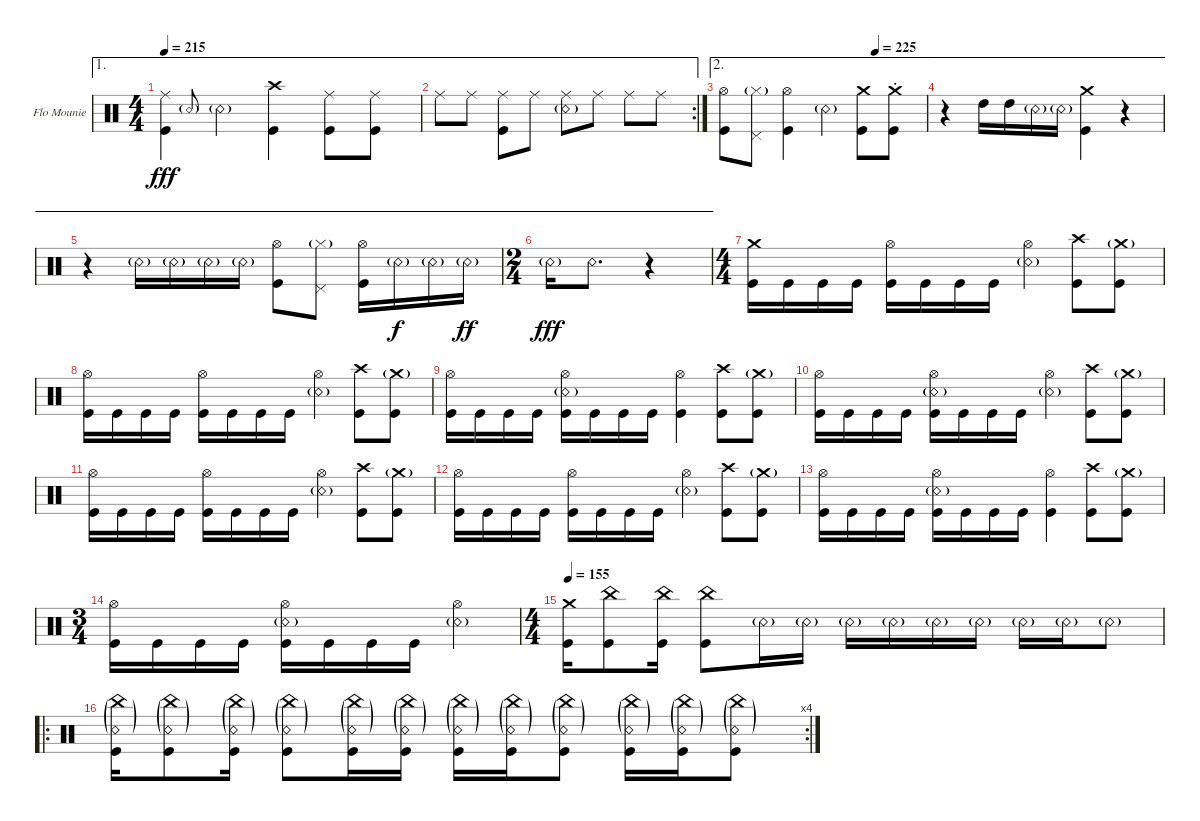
\bracketExtendMode groupsimilarinstruments
\firstSystemTrackNameOrientation horizontal
\otherSystemsTrackNameOrientation horizontal
\track ("Flo Mounier" "Flo Mounie") {instrument percussion}
\staff {score}
\articulation defaults
\ae 1
\ts (4 4)
\tempo 215
\clef neutral
\ks c
("Kick (hit)" "Ride (middle)").4{dy fff} "Snare (rim shot)"{g}.8{gr onbeat} "Snare (rim shot)"{g}.4 ("Kick (hit)" "Crash high (hit)").4 ("Kick (hit)" "Ride (middle)").8 ("Kick (hit)" "Ride (middle)").8 |
\ae 1
\rc 2 "Ride (middle)".8 "Ride (middle)".8
("Ride (middle)" "Kick (hit)").8 "Ride (middle)".8 ("Ride (middle)" "Snare (rim shot)"{g}).8 "Ride (middle)".8 "Ride (middle)".8 "Ride (middle)".8 |
\ae 2
\tempo (225 0.75)
("Kick (hit)" "Hi-Hat (open)").8 ("Pedal Hi-Hat (hit)" "Hi-Hat (closed)"{g}).8 ("Kick (hit)" "Hi-Hat (open)").4 "Snare (rim shot)"{g}.4 ("Kick (hit)" "Crash medium (hit)").8 ("Kick (hit)" "Crash medium (hit)"{st}).8 |
\ae 2
r.4 "High Tom (hit)".16 "High Tom (hit)".16 "Snare (rim shot)"{g}.16 "Snare (rim shot)"{g}.16 ("Kick (hit)" "Crash medium (hit)").4 r.4 |
\ae 2
r.4 "Snare (rim shot)"{g}.16 "Snare (rim shot)"{g}.16 "Snare (rim shot)"{g}.16 "Snare (rim shot)"{g}.16 ("Kick (hit)" "Hi-Hat (open)").8 ("Pedal Hi-Hat (hit)" "Hi-Hat (closed)"{g}).8 ("Kick (hit)" "Hi-Hat (open)").16 "Snare (rim shot)"{g}.16{dy f} "Snare (rim shot)"{g}.16 "Snare (rim shot)"{g}.16{dy ff} |
\ae 2
\ts (2 4)
"Snare (rim shot)"{g}.16{dy fff} "Snare (rim shot)".8{d} r.4 |
\ts (4 4)
("Kick (hit)" "Crash medium (hit)").16 "Kick (hit)".16 "Kick (hit)".16 "Kick (hit)".16 ("Kick (hit)" "Hi-Hat (open)").16 "Kick (hit)".16 "Kick (hit)".16 "Kick (hit)".16 ("Snare (rim shot)"{g} "Hi-Hat (open)").4 ("Kick (hit)" "Crash high (hit)").8 ("Kick (hit)" "Crash medium (hit)"{g}).8 |
("Kick (hit)" "Hi-Hat (open)").16 "Kick (hit)".16 "Kick (hit)".16 "Kick (hit)".16 ("Kick (hit)" "Hi-Hat (open)").16 "Kick (hit)".16 "Kick (hit)".16 "Kick (hit)".16 ("Snare (rim shot)"{g} "Hi-Hat (open)").4 ("Kick (hit)" "Crash high (hit)").8 ("Kick (hit)" "Crash medium (hit)"{g}).8 |
("Kick (hit)" "Hi-Hat (open)").16 "Kick (hit)".16 "Kick (hit)".16 "Kick (hit)".16 ("Snare (rim shot)"{g} "Hi-Hat (open)" "Kick (hit)").16 "Kick (hit)".16 "Kick (hit)".16 "Kick (hit)".16 ("Kick (hit)" "Hi-Hat (open)").4 ("Kick (hit)" "Crash high (hit)").8 ("Kick (hit)" "Crash medium (hit)"{g}).8 |
("Kick (hit)" "Hi-Hat (open)").16 "Kick (hit)".16 "Kick (hit)".16 "Kick (hit)".16 ("Snare (rim shot)"{g} "Hi-Hat (open)" "Kick (hit)").16 "Kick (hit)".16 "Kick (hit)".16 "Kick (hit)".16 ("Snare (rim shot)"{g} "Hi-Hat (open)").4 ("Kick (hit)" "Crash high (hit)").8 ("Kick (hit)" "Crash medium (hit)"{g}).8 |
("Kick (hit)" "Hi-Hat (open)").16 "Kick (hit)".16 "Kick (hit)".16 "Kick (hit)".16 ("Kick (hit)" "Hi-Hat (open)").16 "Kick (hit)".16 "Kick (hit)".16 "Kick (hit)".16 ("Snare (rim shot)"{g} "Hi-Hat (open)").4 ("Kick (hit)" "Crash high (hit)").8 ("Kick (hit)" "Crash medium (hit)"{g}).8 |
("Kick (hit)" "Hi-Hat (open)").16 "Kick (hit)".16 "Kick (hit)".16 "Kick (hit)".16 ("Kick (hit)" "Hi-Hat (open)").16 "Kick (hit)".16 "Kick (hit)".16 "Kick (hit)".16 ("Snare (rim shot)"{g} "Hi-Hat (open)").4 ("Kick (hit)" "Crash high (hit)").8 ("Kick (hit)" "Crash medium (hit)"{g}).8 |
("Kick (hit)" "Hi-Hat (open)").16 "Kick (hit)".16 "Kick (hit)".16 "Kick (hit)".16 ("Snare (rim shot)"{g} "Hi-Hat (open)" "Kick (hit)").16 "Kick (hit)".16 "Kick (hit)".16 "Kick (hit)".16 ("Kick (hit)" "Hi-Hat (open)").4 ("Kick (hit)" "Crash high (hit)").8 ("Kick (hit)" "Crash medium (hit)"{g}).8 |
\ts (3 4)
("Kick (hit)" "Hi-Hat (open)").16 "Kick (hit)".16 "Kick (hit)".16 "Kick (hit)".16 ("Snare (rim shot)"{g} "Hi-Hat (open)" "Kick (hit)").16 "Kick (hit)".16 "Kick (hit)".16 "Kick (hit)".16 ("Snare (rim shot)"{g} "Hi-Hat (open)").4 |
\ts (4 4)
\tempo 155
\scale
0.24795 ("Crash medium (hit)" "Kick (hit)").16 ("China (hit)" "Kick (hit)").8 ("China (hit)" "Kick (hit)").16 ("China (hit)" "Kick (hit)").8 "Snare (rim shot)"{g}.16 "Snare (rim shot)"{g}.16 "Snare (rim shot)"{g}.16 "Snare (rim shot)"{g}.16 "Snare (rim shot)"{g}.16 "Snare (rim shot)"{g}.16 "Snare (rim shot)"{g}.16 "Snare (rim shot)"{g}.16 "Snare (rim shot)"{g}.8 |
\ro
\rc 4
\scale
0.232505 ("Snare (rim shot)"{g} "China (hit)"{g} "Kick (hit)").16 ("Snare (rim shot)"{g} "China (hit)"{g} "Kick (hit)").8 ("Snare (rim shot)"{g} "China (hit)"{g} "Kick (hit)").16 ("Snare (rim shot)"{g} "China (hit)"{g} "Kick (hit)").8 ("Snare (rim shot)"{g} "China (hit)"{g} "Kick (hit)").16 ("Snare (rim shot)"{g} "China (hit)"{g} "Kick (hit)").16 ("Snare (rim shot)"{g} "China (hit)"{g} "Kick (hit)").16 ("Snare (rim shot)"{g} "China (hit)"{g} "Kick (hit)").16 ("Snare (rim shot)"{g} "China (hit)"{g} "Kick (hit)").8 ("Snare (rim shot)"{g} "China (hit)"{g} "Kick (hit)").16 ("Snare (rim shot)"{g} "China (hit)"{g} "Kick (hit)").16 ("Snare (rim shot)"{g} "China (hit)"{g} "Kick (hit)").8
